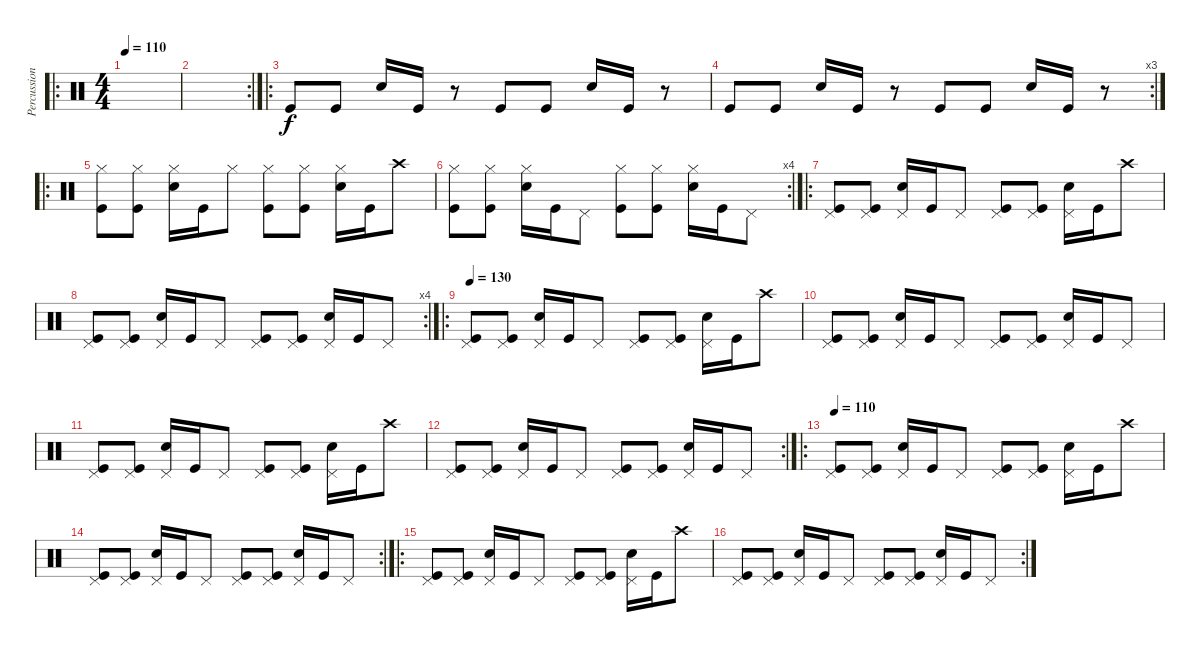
\track ("Percussion" "Percussion") {instrument percussion}
\staff {score}
\articulation defaults
\ro
\ts (4 4)
\tempo 110
\clef neutral
\ks c
|
\rc 2
|
\ro "Kick (hit)".8 "Kick (hit)".8 "Snare (hit) 2".16 "Kick (hit)".16
r.8 "Kick (hit)".8 "Kick (hit)".8 "Snare (hit) 2".16 "Kick (hit)".16 r.8 |
\rc 3 "Kick (hit)".8 "Kick (hit)".8 "Snare (hit) 2".16 "Kick (hit)".16
r.8 "Kick (hit)".8 "Kick (hit)".8 "Snare (hit) 2".16 "Kick (hit)".16 r.8 |
\ro
("Hi-Hat (closed)" "Kick (hit)").8 ("Hi-Hat (closed)" "Kick (hit)").8 ("Hi-Hat (closed)" "Snare (hit) 2").16 "Kick (hit)".16 "Hi-Hat (closed)".8 ("Hi-Hat (closed)" "Kick (hit)").8 ("Hi-Hat (closed)" "Kick (hit)").8 ("Hi-Hat (closed)" "Snare (hit) 2").16 "Kick (hit)".16 "Crash high (hit)".8 |
\rc 4
("Hi-Hat (closed)" "Kick (hit)").8 ("Hi-Hat (closed)" "Kick (hit)").8 ("Hi-Hat (closed)" "Snare (hit) 2").16 "Kick (hit)".16 "Pedal Hi-Hat (hit)".8 ("Hi-Hat (closed)" "Kick (hit)").8 ("Hi-Hat (closed)" "Kick (hit)").8 ("Hi-Hat (closed)" "Snare (hit) 2").16 "Kick (hit)".16 "Pedal Hi-Hat (hit)".8 |
\ro
("Pedal Hi-Hat (hit)" "Kick (hit)").8 ("Pedal Hi-Hat (hit)" "Kick (hit)").8 ("Pedal Hi-Hat (hit)" "Snare (hit) 2").16 "Kick (hit)".16 "Pedal Hi-Hat (hit)".8 ("Pedal Hi-Hat (hit)" "Kick (hit)").8 ("Pedal Hi-Hat (hit)" "Kick (hit)").8 ("Pedal Hi-Hat (hit)" "Snare (hit) 2").16 "Kick (hit)".16 "Crash high (hit)".8 |
\rc 4
("Pedal Hi-Hat (hit)" "Kick (hit)").8 ("Pedal Hi-Hat (hit)" "Kick (hit)").8 ("Pedal Hi-Hat (hit)" "Snare (hit) 2").16 "Kick (hit)".16 "Pedal Hi-Hat (hit)".8 ("Pedal Hi-Hat (hit)" "Kick (hit)").8 ("Pedal Hi-Hat (hit)" "Kick (hit)").8 ("Pedal Hi-Hat (hit)" "Snare (hit) 2").16 "Kick (hit)".16 "Pedal Hi-Hat (hit)".8 |
\ro
\tempo 130
("Pedal Hi-Hat (hit)" "Kick (hit)").8 ("Pedal Hi-Hat (hit)" "Kick (hit)").8 ("Pedal Hi-Hat (hit)" "Snare (hit) 2").16 "Kick (hit)".16 "Pedal Hi-Hat (hit)".8 ("Pedal Hi-Hat (hit)" "Kick (hit)").8 ("Pedal Hi-Hat (hit)" "Kick (hit)").8 ("Pedal Hi-Hat (hit)" "Snare (hit) 2").16 "Kick (hit)".16 "Crash high (hit)".8 |
("Pedal Hi-Hat (hit)" "Kick (hit)").8 ("Pedal Hi-Hat (hit)" "Kick (hit)").8 ("Pedal Hi-Hat (hit)" "Snare (hit) 2").16 "Kick (hit)".16 "Pedal Hi-Hat (hit)".8 ("Pedal Hi-Hat (hit)" "Kick (hit)").8 ("Pedal Hi-Hat (hit)" "Kick (hit)").8 ("Pedal Hi-Hat (hit)" "Snare (hit) 2").16 "Kick (hit)".16 "Pedal Hi-Hat (hit)".8 |
("Pedal Hi-Hat (hit)" "Kick (hit)").8 ("Pedal Hi-Hat (hit)" "Kick (hit)").8 ("Pedal Hi-Hat (hit)" "Snare (hit) 2").16 "Kick (hit)".16 "Pedal Hi-Hat (hit)".8 ("Pedal Hi-Hat (hit)" "Kick (hit)").8 ("Pedal Hi-Hat (hit)" "Kick (hit)").8 ("Pedal Hi-Hat (hit)" "Snare (hit) 2").16 "Kick (hit)".16 "Crash high (hit)".8 |
\rc 2
("Pedal Hi-Hat (hit)" "Kick (hit)").8 ("Pedal Hi-Hat (hit)" "Kick (hit)").8 ("Pedal Hi-Hat (hit)" "Snare (hit) 2").16 "Kick (hit)".16 "Pedal Hi-Hat (hit)".8 ("Pedal Hi-Hat (hit)" "Kick (hit)").8 ("Pedal Hi-Hat (hit)" "Kick (hit)").8 ("Pedal Hi-Hat (hit)" "Snare (hit) 2").16 "Kick (hit)".16 "Pedal Hi-Hat (hit)".8 |
\ro
\tempo 110
("Pedal Hi-Hat (hit)" "Kick (hit)").8 ("Pedal Hi-Hat (hit)" "Kick (hit)").8 ("Pedal Hi-Hat (hit)" "Snare (hit) 2").16 "Kick (hit)".16 "Pedal Hi-Hat (hit)".8 ("Pedal Hi-Hat (hit)" "Kick (hit)").8 ("Pedal Hi-Hat (hit)" "Kick (hit)").8 ("Pedal Hi-Hat (hit)" "Snare (hit) 2").16 "Kick (hit)".16 "Crash high (hit)".8 |
\rc 2
("Pedal Hi-Hat (hit)" "Kick (hit)").8 ("Pedal Hi-Hat (hit)" "Kick (hit)").8 ("Pedal Hi-Hat (hit)" "Snare (hit) 2").16 "Kick (hit)".16 "Pedal Hi-Hat (hit)".8 ("Pedal Hi-Hat (hit)" "Kick (hit)").8 ("Pedal Hi-Hat (hit)" "Kick (hit)").8 ("Pedal Hi-Hat (hit)" "Snare (hit) 2").16 "Kick (hit)".16 "Pedal Hi-Hat (hit)".8 |
\ro
("Pedal Hi-Hat (hit)" "Kick (hit)").8 ("Pedal Hi-Hat (hit)" "Kick (hit)").8 ("Pedal Hi-Hat (hit)" "Snare (hit) 2").16 "Kick (hit)".16 "Pedal Hi-Hat (hit)".8 ("Pedal Hi-Hat (hit)" "Kick (hit)").8 ("Pedal Hi-Hat (hit)" "Kick (hit)").8 ("Pedal Hi-Hat (hit)" "Snare (hit) 2").16 "Kick (hit)".16 "Crash high (hit)".8 |
\rc 2
("Pedal Hi-Hat (hit)" "Kick (hit)").8 ("Pedal Hi-Hat (hit)" "Kick (hit)").8 ("Pedal Hi-Hat (hit)" "Snare (hit) 2").16 "Kick (hit)".16 "Pedal Hi-Hat (hit)".8 ("Pedal Hi-Hat (hit)" "Kick (hit)").8 ("Pedal Hi-Hat (hit)" "Kick (hit)").8 ("Pedal Hi-Hat (hit)" "Snare (hit) 2").16 "Kick (hit)".16 "Pedal Hi-Hat (hit)".8
